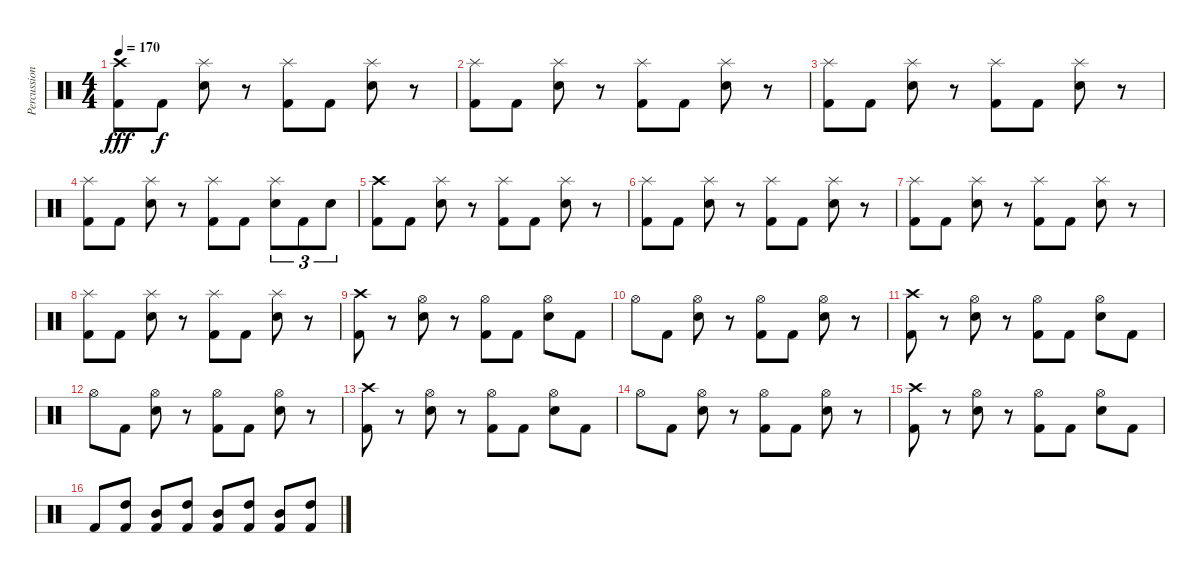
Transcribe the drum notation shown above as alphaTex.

\track ("Percussion" "Percussion") {instrument percussion}
\staff {score}
\articulation defaults
\ts (4 4)
\tempo 170
\clef neutral
\ks c
("Crash high (hit)" "Kick (hit) 2").8{dy fff} "Kick (hit) 2".8{dy f} ("Splash (hit)" "Electric Snare (hit)").8 r.8 ("Splash (hit)" "Kick (hit) 2").8 "Kick (hit) 2".8 ("Splash (hit)" "Electric Snare (hit)").8 r.8 |
("Splash (hit)" "Kick (hit) 2").8 "Kick (hit) 2".8 ("Splash (hit)" "Electric Snare (hit)").8 r.8 ("Splash (hit)" "Kick (hit) 2").8 "Kick (hit) 2".8 ("Splash (hit)" "Electric Snare (hit)").8 r.8 |
("Splash (hit)" "Kick (hit) 2").8 "Kick (hit) 2".8 ("Splash (hit)" "Electric Snare (hit)").8 r.8 ("Splash (hit)" "Kick (hit) 2").8 "Kick (hit) 2".8 ("Splash (hit)" "Electric Snare (hit)").8 r.8 |
("Splash (hit)" "Kick (hit) 2").8 "Kick (hit) 2".8 ("Splash (hit)" "Electric Snare (hit)").8 r.8 ("Splash (hit)" "Kick (hit) 2").8 "Kick (hit) 2".8 ("Splash (hit)" "Electric Snare (hit)").8{tu (3 2)} "Kick (hit) 2".8{tu (3 2)} "Electric Snare (hit)".8{tu (3 2)} |
("Crash high (hit)" "Kick (hit) 2").8 "Kick (hit) 2".8 ("Splash (hit)" "Electric Snare (hit)").8 r.8 ("Splash (hit)" "Kick (hit) 2").8 "Kick (hit) 2".8 ("Splash (hit)" "Electric Snare (hit)").8 r.8 |
("Splash (hit)" "Kick (hit) 2").8 "Kick (hit) 2".8 ("Splash (hit)" "Electric Snare (hit)").8 r.8 ("Splash (hit)" "Kick (hit) 2").8 "Kick (hit) 2".8 ("Splash (hit)" "Electric Snare (hit)").8 r.8 |
("Splash (hit)" "Kick (hit) 2").8 "Kick (hit) 2".8 ("Splash (hit)" "Electric Snare (hit)").8 r.8 ("Splash (hit)" "Kick (hit) 2").8 "Kick (hit) 2".8 ("Splash (hit)" "Electric Snare (hit)").8 r.8 |
("Splash (hit)" "Kick (hit) 2").8 "Kick (hit) 2".8 ("Splash (hit)" "Electric Snare (hit)").8 r.8 ("Splash (hit)" "Kick (hit) 2").8 "Kick (hit) 2".8 ("Splash (hit)" "Electric Snare (hit)").8 r.8 |
("Crash high (hit)" "Kick (hit) 2").8 r.8 ("Hi-Hat (open)" "Electric Snare (hit)").8 r.8 ("Hi-Hat (open)" "Kick (hit) 2").8 "Kick (hit) 2".8 ("Hi-Hat (open)" "Electric Snare (hit)").8 "Kick (hit) 2".8 |
"Hi-Hat (open)".8 "Kick (hit) 2".8 ("Hi-Hat (open)" "Electric Snare (hit)").8 r.8 ("Hi-Hat (open)" "Kick (hit) 2").8 "Kick (hit) 2".8 ("Hi-Hat (open)" "Electric Snare (hit)").8 r.8 |
("Crash high (hit)" "Kick (hit) 2").8 r.8 ("Hi-Hat (open)" "Electric Snare (hit)").8 r.8 ("Hi-Hat (open)" "Kick (hit) 2").8 "Kick (hit) 2".8 ("Hi-Hat (open)" "Electric Snare (hit)").8 "Kick (hit) 2".8 |
"Hi-Hat (open)".8 "Kick (hit) 2".8 ("Hi-Hat (open)" "Electric Snare (hit)").8 r.8 ("Hi-Hat (open)" "Kick (hit) 2").8 "Kick (hit) 2".8 ("Hi-Hat (open)" "Electric Snare (hit)").8 r.8 |
("Crash high (hit)" "Kick (hit) 2").8 r.8 ("Hi-Hat (open)" "Electric Snare (hit)").8 r.8 ("Hi-Hat (open)" "Kick (hit) 2").8 "Kick (hit) 2".8 ("Hi-Hat (open)" "Electric Snare (hit)").8 "Kick (hit) 2".8 |
"Hi-Hat (open)".8 "Kick (hit) 2".8 ("Hi-Hat (open)" "Electric Snare (hit)").8 r.8 ("Hi-Hat (open)" "Kick (hit) 2").8 "Kick (hit) 2".8 ("Hi-Hat (open)" "Electric Snare (hit)").8 r.8 |
("Crash high (hit)" "Kick (hit) 2").8 r.8 ("Hi-Hat (open)" "Electric Snare (hit)").8 r.8 ("Hi-Hat (open)" "Kick (hit) 2").8 "Kick (hit) 2".8 ("Hi-Hat (open)" "Electric Snare (hit)").8 "Kick (hit) 2".8 |
"Kick (hit) 2".8 ("High Tom (hit)" "Kick (hit) 2").8 ("Mid Tom (hit)" "Kick (hit) 2").8 ("High Tom (hit)" "Kick (hit) 2").8 ("Mid Tom (hit)" "Kick (hit) 2").8 ("High Tom (hit)" "Kick (hit) 2").8 ("Mid Tom (hit)" "Kick (hit) 2").8 ("High Tom (hit)" "Kick (hit) 2").8
